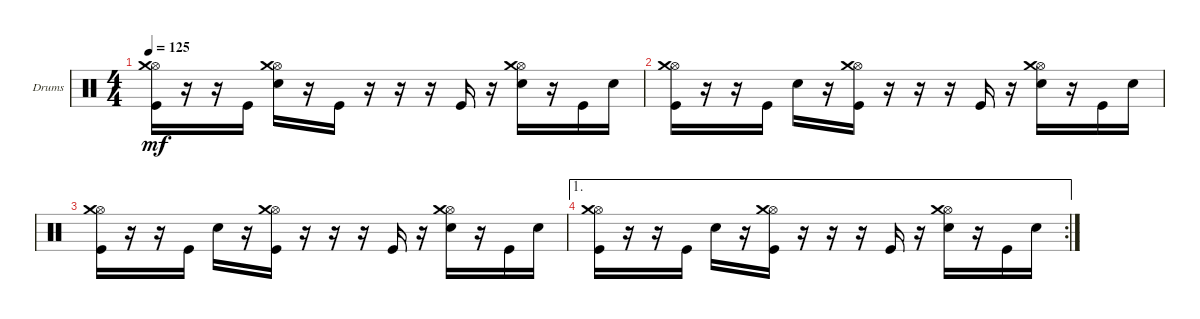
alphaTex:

\defaultSystemsLayout 4
\bracketExtendMode groupsimilarinstruments
\firstSystemTrackNameOrientation horizontal
\otherSystemsTrackNameOrientation horizontal
\track ("Ударные" "Drums") {instrument percussion}
\staff {score}
\articulation defaults
\ts (4 4)
\tempo 125
\clef neutral
\ks c
("Kick (hit)" "Hi-Hat (open)" "Crash medium (hit)").16{dy mf} r.16 r.16 "Kick (hit)".16 ("Snare (hit) 2" "Hi-Hat (open)" "Crash medium (hit)").16 r.16 "Kick (hit)".16 r.16 r.16 r.16 "Kick (hit)".16 r.16 ("Snare (hit) 2" "Hi-Hat (open)" "Crash medium (hit)").16 r.16 "Kick (hit)".16 "Snare (hit) 2".16 |
("Kick (hit)" "Hi-Hat (open)" "Crash medium (hit)").16 r.16 r.16 "Kick (hit)".16 "Snare (hit) 2".16 r.16 ("Kick (hit)" "Hi-Hat (open)" "Crash medium (hit)").16 r.16 r.16 r.16 "Kick (hit)".16 r.16 ("Snare (hit) 2" "Hi-Hat (open)" "Crash medium (hit)").16 r.16 "Kick (hit)".16 "Snare (hit) 2".16 |
("Kick (hit)" "Hi-Hat (open)" "Crash medium (hit)").16 r.16 r.16 "Kick (hit)".16 "Snare (hit) 2".16 r.16 ("Kick (hit)" "Hi-Hat (open)" "Crash medium (hit)").16 r.16 r.16 r.16 "Kick (hit)".16 r.16 ("Snare (hit) 2" "Hi-Hat (open)" "Crash medium (hit)").16 r.16 "Kick (hit)".16 "Snare (hit) 2".16 |
\ae 1
\rc 2
("Kick (hit)" "Hi-Hat (open)" "Crash medium (hit)").16 r.16 r.16 "Kick (hit)".16 "Snare (hit) 2".16 r.16 ("Kick (hit)" "Hi-Hat (open)" "Crash medium (hit)").16 r.16 r.16 r.16 "Kick (hit)".16 r.16 ("Snare (hit) 2" "Hi-Hat (open)" "Crash medium (hit)").16 r.16 "Kick (hit)".16 "Snare (hit) 2".16
